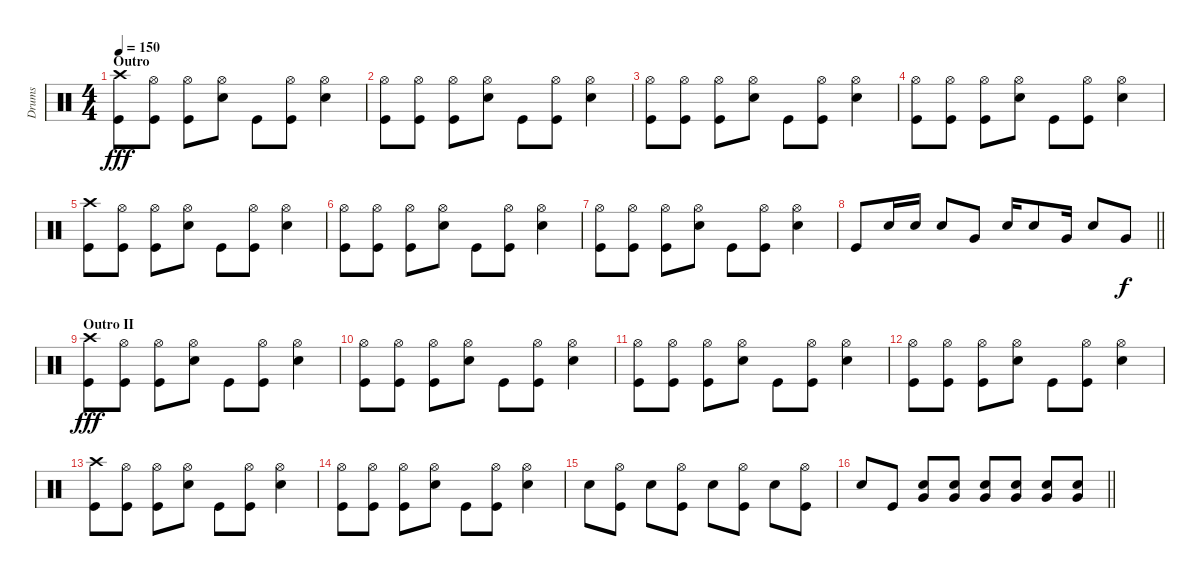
\track ("Drums" "Drums") {instrument percussion}
\staff {score}
\articulation defaults
\ts (4 4)
\section ("" "Outro")
\tempo 150
\clef neutral
\ks c
("Crash high (hit)" "Kick (hit)").8{dy fff} ("Hi-Hat (open)" "Kick (hit)").8 ("Hi-Hat (open)" "Kick (hit)").8 ("Hi-Hat (open)" "Snare (hit) 2").8 "Kick (hit)".8 ("Hi-Hat (open)" "Kick (hit)").8 ("Hi-Hat (open)" "Snare (hit) 2").4 |
("Hi-Hat (open)" "Kick (hit)").8 ("Hi-Hat (open)" "Kick (hit)").8 ("Hi-Hat (open)" "Kick (hit)").8 ("Hi-Hat (open)" "Snare (hit) 2").8 "Kick (hit)".8 ("Hi-Hat (open)" "Kick (hit)").8 ("Hi-Hat (open)" "Snare (hit) 2").4 |
("Hi-Hat (open)" "Kick (hit)").8 ("Hi-Hat (open)" "Kick (hit)").8 ("Hi-Hat (open)" "Kick (hit)").8 ("Hi-Hat (open)" "Snare (hit) 2").8 "Kick (hit)".8 ("Hi-Hat (open)" "Kick (hit)").8 ("Hi-Hat (open)" "Snare (hit) 2").4 |
("Hi-Hat (open)" "Kick (hit)").8 ("Hi-Hat (open)" "Kick (hit)").8 ("Hi-Hat (open)" "Kick (hit)").8 ("Hi-Hat (open)" "Snare (hit) 2").8 "Kick (hit)".8 ("Hi-Hat (open)" "Kick (hit)").8 ("Hi-Hat (open)" "Snare (hit) 2").4 |
("Crash high (hit)" "Kick (hit)").8 ("Hi-Hat (open)" "Kick (hit)").8 ("Hi-Hat (open)" "Kick (hit)").8 ("Hi-Hat (open)" "Snare (hit) 2").8 "Kick (hit)".8 ("Hi-Hat (open)" "Kick (hit)").8 ("Hi-Hat (open)" "Snare (hit) 2").4 |
("Hi-Hat (open)" "Kick (hit)").8 ("Hi-Hat (open)" "Kick (hit)").8 ("Hi-Hat (open)" "Kick (hit)").8 ("Hi-Hat (open)" "Snare (hit) 2").8 "Kick (hit)".8 ("Hi-Hat (open)" "Kick (hit)").8 ("Hi-Hat (open)" "Snare (hit) 2").4 |
("Hi-Hat (open)" "Kick (hit)").8 ("Hi-Hat (open)" "Kick (hit)").8 ("Hi-Hat (open)" "Kick (hit)").8 ("Hi-Hat (open)" "Snare (hit) 2").8 "Kick (hit)".8 ("Hi-Hat (open)" "Kick (hit)").8 ("Hi-Hat (open)" "Snare (hit) 2").4 |
\barLineRight lightlight "Kick (hit)".8 "Snare (hit) 2".16 "Snare (hit) 2".16 "Snare (hit) 2".8 "Very Low Tom (hit)".8 "Snare (hit) 2".16 "Snare (hit) 2".8 "Very Low Tom (hit)".16 "Snare (hit) 2".8 "Very Low Tom (hit)".8{dy f}
|
\section ("" "Outro II")
("Crash high (hit)" "Kick (hit)").8{dy fff} ("Hi-Hat (open)" "Kick (hit)").8 ("Hi-Hat (open)" "Kick (hit)").8 ("Hi-Hat (open)" "Snare (hit) 2").8 "Kick (hit)".8 ("Hi-Hat (open)" "Kick (hit)").8 ("Hi-Hat (open)" "Snare (hit) 2").4 |
("Hi-Hat (open)" "Kick (hit)").8 ("Hi-Hat (open)" "Kick (hit)").8 ("Hi-Hat (open)" "Kick (hit)").8 ("Hi-Hat (open)" "Snare (hit) 2").8 "Kick (hit)".8 ("Hi-Hat (open)" "Kick (hit)").8 ("Hi-Hat (open)" "Snare (hit) 2").4 |
("Hi-Hat (open)" "Kick (hit)").8 ("Hi-Hat (open)" "Kick (hit)").8 ("Hi-Hat (open)" "Kick (hit)").8 ("Hi-Hat (open)" "Snare (hit) 2").8 "Kick (hit)".8 ("Hi-Hat (open)" "Kick (hit)").8 ("Hi-Hat (open)" "Snare (hit) 2").4 |
("Hi-Hat (open)" "Kick (hit)").8 ("Hi-Hat (open)" "Kick (hit)").8 ("Hi-Hat (open)" "Kick (hit)").8 ("Hi-Hat (open)" "Snare (hit) 2").8 "Kick (hit)".8 ("Hi-Hat (open)" "Kick (hit)").8 ("Hi-Hat (open)" "Snare (hit) 2").4 |
("Crash high (hit)" "Kick (hit)").8 ("Hi-Hat (open)" "Kick (hit)").8 ("Hi-Hat (open)" "Kick (hit)").8 ("Hi-Hat (open)" "Snare (hit) 2").8 "Kick (hit)".8 ("Hi-Hat (open)" "Kick (hit)").8 ("Hi-Hat (open)" "Snare (hit) 2").4 |
("Hi-Hat (open)" "Kick (hit)").8 ("Hi-Hat (open)" "Kick (hit)").8 ("Hi-Hat (open)" "Kick (hit)").8 ("Hi-Hat (open)" "Snare (hit) 2").8 "Kick (hit)".8 ("Hi-Hat (open)" "Kick (hit)").8 ("Hi-Hat (open)" "Snare (hit) 2").4 |
"Snare (hit) 2".8 ("Hi-Hat (open)" "Kick (hit)").8 "Snare (hit) 2".8 ("Hi-Hat (open)" "Kick (hit)").8 "Snare (hit) 2".8 ("Hi-Hat (open)" "Kick (hit)").8 "Snare (hit) 2".8 ("Hi-Hat (open)" "Kick (hit)").8 |
\barLineRight lightlight "Snare (hit) 2".8 "Kick (hit)".8
("Snare (hit) 2" "Very Low Tom (hit)").8 ("Snare (hit) 2" "Very Low Tom (hit)").8 ("Snare (hit) 2" "Very Low Tom (hit)").8 ("Snare (hit) 2" "Very Low Tom (hit)").8 ("Snare (hit) 2" "Very Low Tom (hit)").8 ("Snare (hit) 2" "Very Low Tom (hit)").8
